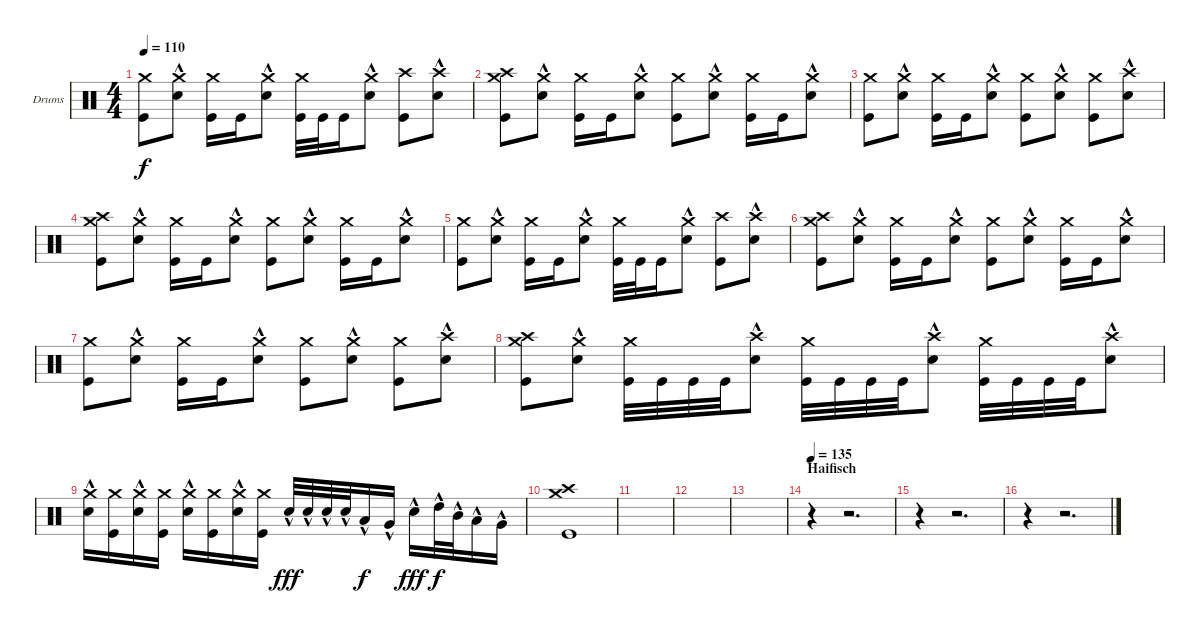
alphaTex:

\bracketExtendMode groupsimilarinstruments
\firstSystemTrackNameOrientation horizontal
\otherSystemsTrackNameOrientation horizontal
\track ("Drumkit (Christoph)" "Drums") {instrument percussion}
\staff {score}
\articulation defaults
\ts (4 4)
\tempo 110
\clef neutral
\ks c
("Crash medium (hit)" "Kick (hit)").8{dy f} ("Crash medium (hit)" "Snare (hit) 2"{hac}).8 ("Crash medium (hit)" "Kick (hit)").16 "Kick (hit)".16 ("Crash medium (hit)" "Snare (hit) 2"{hac}).8 ("Crash medium (hit)" "Kick (hit)").32 "Kick (hit)".32 "Kick (hit)".16 ("Crash medium (hit)" "Snare (hit) 2"{hac}).8 ("Crash high (hit)" "Kick (hit)").8 ("Crash high (hit)" "Snare (hit) 2"{hac}).8 |
("Crash medium (hit)" "Kick (hit)" "Crash high (hit)").8 ("Crash medium (hit)" "Snare (hit) 2"{hac}).8 ("Crash medium (hit)" "Kick (hit)").16 "Kick (hit)".16 ("Crash medium (hit)" "Snare (hit) 2"{hac}).8 ("Crash medium (hit)" "Kick (hit)").8 ("Crash medium (hit)" "Snare (hit) 2"{hac}).8 ("Crash medium (hit)" "Kick (hit)").16 "Kick (hit)".16 ("Crash medium (hit)" "Snare (hit) 2"{hac}).8 |
("Crash medium (hit)" "Kick (hit)").8 ("Crash medium (hit)" "Snare (hit) 2"{hac}).8 ("Crash medium (hit)" "Kick (hit)").16 "Kick (hit)".16 ("Crash medium (hit)" "Snare (hit) 2"{hac}).8 ("Crash medium (hit)" "Kick (hit)").8 ("Crash medium (hit)" "Snare (hit) 2"{hac}).8 ("Crash medium (hit)" "Kick (hit)").8 ("Crash high (hit)" "Snare (hit) 2"{hac}).8 |
("Crash medium (hit)" "Kick (hit)" "Crash high (hit)").8 ("Crash medium (hit)" "Snare (hit) 2"{hac}).8 ("Crash medium (hit)" "Kick (hit)").16 "Kick (hit)".16 ("Crash medium (hit)" "Snare (hit) 2"{hac}).8 ("Crash medium (hit)" "Kick (hit)").8 ("Crash medium (hit)" "Snare (hit) 2"{hac}).8 ("Crash medium (hit)" "Kick (hit)").16 "Kick (hit)".16 ("Crash medium (hit)" "Snare (hit) 2"{hac}).8 |
("Crash medium (hit)" "Kick (hit)").8 ("Crash medium (hit)" "Snare (hit) 2"{hac}).8 ("Crash medium (hit)" "Kick (hit)").16 "Kick (hit)".16 ("Crash medium (hit)" "Snare (hit) 2"{hac}).8 ("Crash medium (hit)" "Kick (hit)").32 "Kick (hit)".32 "Kick (hit)".16 ("Crash medium (hit)" "Snare (hit) 2"{hac}).8 ("Crash high (hit)" "Kick (hit)").8 ("Crash high (hit)" "Snare (hit) 2"{hac}).8 |
("Crash medium (hit)" "Kick (hit)" "Crash high (hit)").8 ("Crash medium (hit)" "Snare (hit) 2"{hac}).8 ("Crash medium (hit)" "Kick (hit)").16 "Kick (hit)".16 ("Crash medium (hit)" "Snare (hit) 2"{hac}).8 ("Crash medium (hit)" "Kick (hit)").8 ("Crash medium (hit)" "Snare (hit) 2"{hac}).8 ("Crash medium (hit)" "Kick (hit)").16 "Kick (hit)".16 ("Crash medium (hit)" "Snare (hit) 2"{hac}).8 |
("Crash medium (hit)" "Kick (hit)").8 ("Crash medium (hit)" "Snare (hit) 2"{hac}).8 ("Crash medium (hit)" "Kick (hit)").16 "Kick (hit)".16 ("Crash medium (hit)" "Snare (hit) 2"{hac}).8 ("Crash medium (hit)" "Kick (hit)").8 ("Crash medium (hit)" "Snare (hit) 2"{hac}).8 ("Crash medium (hit)" "Kick (hit)").8 ("Crash high (hit)" "Snare (hit) 2"{hac}).8 |
("Crash medium (hit)" "Kick (hit)" "Crash high (hit)").8 ("Crash medium (hit)" "Snare (hit) 2"{hac}).8 ("Crash medium (hit)" "Kick (hit)").32 "Kick (hit)".32 "Kick (hit)".32 "Kick (hit)".32 ("Crash high (hit)" "Snare (hit) 2"{hac}).8 ("Crash medium (hit)" "Kick (hit)").32 "Kick (hit)".32 "Kick (hit)".32 "Kick (hit)".32 ("Crash high (hit)" "Snare (hit) 2"{hac}).8 ("Crash medium (hit)" "Kick (hit)").32 "Kick (hit)".32 "Kick (hit)".32 "Kick (hit)".32 ("Crash high (hit)" "Snare (hit) 2"{hac}).8 |
("Crash medium (hit)" "Snare (hit) 2"{hac}).16 ("Crash medium (hit)" "Kick (hit)").16 ("Crash medium (hit)" "Snare (hit) 2"{hac}).16 ("Crash medium (hit)" "Kick (hit)").16 ("Crash medium (hit)" "Snare (hit) 2"{hac}).16 ("Crash medium (hit)" "Kick (hit)").16 ("Crash medium (hit)" "Snare (hit) 2"{hac}).16 ("Crash medium (hit)" "Kick (hit)").16 "Snare (hit) 2"{hac}.32{dy fff} "Snare (hit) 2"{hac}.32 "Snare (hit) 2"{hac}.32 "Snare (hit) 2"{hac}.32 "Low Tom (hit)"{hac}.16{dy f} "Very Low Tom (hit)"{hac}.16 "Snare (hit) 2"{hac}.16{dy fff} "High Tom (hit)"{hac}.32{dy f} "Mid Tom (hit)"{hac}.32 "Low Tom (hit)"{hac}.16 "Very Low Tom (hit)"{hac}.16 |
("Crash medium (hit)" "Kick (hit)" "Crash high (hit)").1 |
|
|
|
\section ("" "Haifisch")
\tempo 135
r.4 r.2{d} |
r.4 r.2{d} |
r.4 r.2{d}
